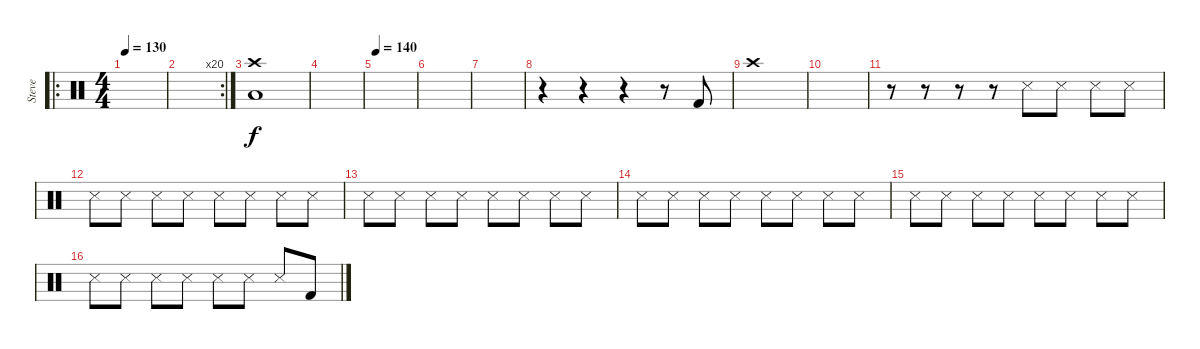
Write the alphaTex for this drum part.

\track ("Steve" "Steve") {instrument percussion}
\staff {score}
\articulation defaults
\ro
\ts (4 4)
\tempo 130
\tempo 125
\tempo 130
\clef neutral
\ks c
|
\rc 20
|
("Low Tom (hit)" "Crash high (hit)").1 |
|
\tempo 140
|
|
|
r.4 r.4 r.4 r.8 "Kick (hit) 2".8 |
"Crash high (hit)".1 |
|
r.8 r.8 r.8 r.8 "Metronome (hit)".8 "Metronome (hit)".8 "Metronome (hit)".8 "Metronome (hit)".8 |
"Metronome (hit)".8 "Metronome (hit)".8 "Metronome (hit)".8 "Metronome (hit)".8 "Metronome (hit)".8 "Metronome (hit)".8 "Metronome (hit)".8 "Metronome (hit)".8 |
"Metronome (hit)".8 "Metronome (hit)".8 "Metronome (hit)".8 "Metronome (hit)".8 "Metronome (hit)".8 "Metronome (hit)".8 "Metronome (hit)".8 "Metronome (hit)".8 |
"Metronome (hit)".8 "Metronome (hit)".8 "Metronome (hit)".8 "Metronome (hit)".8 "Metronome (hit)".8 "Metronome (hit)".8 "Metronome (hit)".8 "Metronome (hit)".8 |
"Metronome (hit)".8 "Metronome (hit)".8 "Metronome (hit)".8 "Metronome (hit)".8 "Metronome (hit)".8 "Metronome (hit)".8 "Metronome (hit)".8 "Metronome (hit)".8 |
"Metronome (hit)".8 "Metronome (hit)".8 "Metronome (hit)".8 "Metronome (hit)".8 "Metronome (hit)".8 "Metronome (hit)".8 "Metronome (hit)".8 "Kick (hit) 2".8
